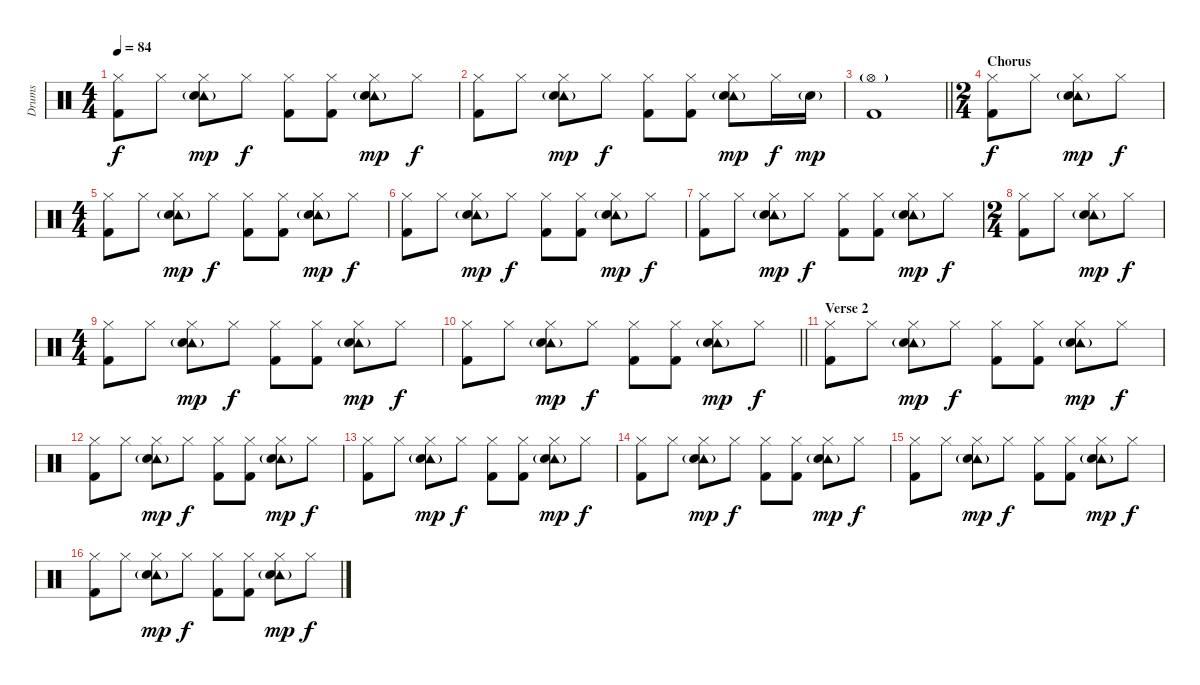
\track ("Drums" "Drums") {instrument percussion}
\staff {score}
\articulation defaults
\ts (4 4)
\tempo 84
\clef neutral
\ks c
("Hi-Hat (closed)" "Kick (hit) 2").8{dy f} "Hi-Hat (closed)".8 ("Hi-Hat (closed)" "Tambourine (hit)"{g} "Snare (hit) 2").8{dy mp} "Hi-Hat (closed)".8{dy f} ("Hi-Hat (closed)" "Kick (hit) 2").8 ("Hi-Hat (closed)" "Kick (hit) 2").8 ("Hi-Hat (closed)" "Tambourine (hit)"{g} "Snare (hit) 2").8{dy mp} "Hi-Hat (closed)".8{dy f} |
("Hi-Hat (closed)" "Kick (hit) 2").8 "Hi-Hat (closed)".8 ("Hi-Hat (closed)" "Tambourine (hit)"{g} "Snare (hit) 2").8{dy mp} "Hi-Hat (closed)".8{dy f} ("Hi-Hat (closed)" "Kick (hit) 2").8 ("Hi-Hat (closed)" "Kick (hit) 2").8 ("Hi-Hat (closed)" "Tambourine (hit)"{g} "Snare (hit) 2").8{dy mp} "Hi-Hat (closed)".16{dy f} "Snare (hit) 2"{g}.16{dy mp} |
\barLineRight lightlight
("Hi-Hat (open)"{g} "Kick (hit) 2").1 |
\ts (2 4)
\section ("" "Chorus")
("Hi-Hat (closed)" "Kick (hit) 2").8{dy f} "Hi-Hat (closed)".8 ("Hi-Hat (closed)" "Tambourine (hit)"{g} "Snare (hit) 2").8{dy mp} "Hi-Hat (closed)".8{dy f} |
\ts (4 4)
("Hi-Hat (closed)" "Kick (hit) 2").8 "Hi-Hat (closed)".8 ("Hi-Hat (closed)" "Tambourine (hit)"{g} "Snare (hit) 2").8{dy mp} "Hi-Hat (closed)".8{dy f} ("Hi-Hat (closed)" "Kick (hit) 2").8 ("Hi-Hat (closed)" "Kick (hit) 2").8 ("Hi-Hat (closed)" "Tambourine (hit)"{g} "Snare (hit) 2").8{dy mp} "Hi-Hat (closed)".8{dy f} |
("Hi-Hat (closed)" "Kick (hit) 2").8 "Hi-Hat (closed)".8 ("Hi-Hat (closed)" "Tambourine (hit)"{g} "Snare (hit) 2").8{dy mp} "Hi-Hat (closed)".8{dy f} ("Hi-Hat (closed)" "Kick (hit) 2").8 ("Hi-Hat (closed)" "Kick (hit) 2").8 ("Hi-Hat (closed)" "Tambourine (hit)"{g} "Snare (hit) 2").8{dy mp} "Hi-Hat (closed)".8{dy f} |
("Hi-Hat (closed)" "Kick (hit) 2").8 "Hi-Hat (closed)".8 ("Hi-Hat (closed)" "Tambourine (hit)"{g} "Snare (hit) 2").8{dy mp} "Hi-Hat (closed)".8{dy f} ("Hi-Hat (closed)" "Kick (hit) 2").8 ("Hi-Hat (closed)" "Kick (hit) 2").8 ("Hi-Hat (closed)" "Tambourine (hit)"{g} "Snare (hit) 2").8{dy mp} "Hi-Hat (closed)".8{dy f} |
\ts (2 4)
("Hi-Hat (closed)" "Kick (hit) 2").8 "Hi-Hat (closed)".8 ("Hi-Hat (closed)" "Tambourine (hit)"{g} "Snare (hit) 2").8{dy mp} "Hi-Hat (closed)".8{dy f} |
\ts (4 4)
("Hi-Hat (closed)" "Kick (hit) 2").8 "Hi-Hat (closed)".8 ("Hi-Hat (closed)" "Tambourine (hit)"{g} "Snare (hit) 2").8{dy mp} "Hi-Hat (closed)".8{dy f} ("Hi-Hat (closed)" "Kick (hit) 2").8 ("Hi-Hat (closed)" "Kick (hit) 2").8 ("Hi-Hat (closed)" "Tambourine (hit)"{g} "Snare (hit) 2").8{dy mp} "Hi-Hat (closed)".8{dy f} |
\barLineRight lightlight
("Hi-Hat (closed)" "Kick (hit) 2").8 "Hi-Hat (closed)".8 ("Hi-Hat (closed)" "Tambourine (hit)"{g} "Snare (hit) 2").8{dy mp} "Hi-Hat (closed)".8{dy f} ("Hi-Hat (closed)" "Kick (hit) 2").8 ("Hi-Hat (closed)" "Kick (hit) 2").8 ("Hi-Hat (closed)" "Tambourine (hit)"{g} "Snare (hit) 2").8{dy mp} "Hi-Hat (closed)".8{dy f} |
\section ("" "Verse 2")
("Hi-Hat (closed)" "Kick (hit) 2").8 "Hi-Hat (closed)".8 ("Hi-Hat (closed)" "Tambourine (hit)"{g} "Snare (hit) 2").8{dy mp} "Hi-Hat (closed)".8{dy f} ("Hi-Hat (closed)" "Kick (hit) 2").8 ("Hi-Hat (closed)" "Kick (hit) 2").8 ("Hi-Hat (closed)" "Tambourine (hit)"{g} "Snare (hit) 2").8{dy mp} "Hi-Hat (closed)".8{dy f} |
("Hi-Hat (closed)" "Kick (hit) 2").8 "Hi-Hat (closed)".8 ("Hi-Hat (closed)" "Tambourine (hit)"{g} "Snare (hit) 2").8{dy mp} "Hi-Hat (closed)".8{dy f} ("Hi-Hat (closed)" "Kick (hit) 2").8 ("Hi-Hat (closed)" "Kick (hit) 2").8 ("Hi-Hat (closed)" "Tambourine (hit)"{g} "Snare (hit) 2").8{dy mp} "Hi-Hat (closed)".8{dy f} |
("Hi-Hat (closed)" "Kick (hit) 2").8 "Hi-Hat (closed)".8 ("Hi-Hat (closed)" "Tambourine (hit)"{g} "Snare (hit) 2").8{dy mp} "Hi-Hat (closed)".8{dy f} ("Hi-Hat (closed)" "Kick (hit) 2").8 ("Hi-Hat (closed)" "Kick (hit) 2").8 ("Hi-Hat (closed)" "Tambourine (hit)"{g} "Snare (hit) 2").8{dy mp} "Hi-Hat (closed)".8{dy f} |
("Hi-Hat (closed)" "Kick (hit) 2").8 "Hi-Hat (closed)".8 ("Hi-Hat (closed)" "Tambourine (hit)"{g} "Snare (hit) 2").8{dy mp} "Hi-Hat (closed)".8{dy f} ("Hi-Hat (closed)" "Kick (hit) 2").8 ("Hi-Hat (closed)" "Kick (hit) 2").8 ("Hi-Hat (closed)" "Tambourine (hit)"{g} "Snare (hit) 2").8{dy mp} "Hi-Hat (closed)".8{dy f} |
("Hi-Hat (closed)" "Kick (hit) 2").8 "Hi-Hat (closed)".8 ("Hi-Hat (closed)" "Tambourine (hit)"{g} "Snare (hit) 2").8{dy mp} "Hi-Hat (closed)".8{dy f} ("Hi-Hat (closed)" "Kick (hit) 2").8 ("Hi-Hat (closed)" "Kick (hit) 2").8 ("Hi-Hat (closed)" "Tambourine (hit)"{g} "Snare (hit) 2").8{dy mp} "Hi-Hat (closed)".8{dy f} |
("Hi-Hat (closed)" "Kick (hit) 2").8 "Hi-Hat (closed)".8 ("Hi-Hat (closed)" "Tambourine (hit)"{g} "Snare (hit) 2").8{dy mp} "Hi-Hat (closed)".8{dy f} ("Hi-Hat (closed)" "Kick (hit) 2").8 ("Hi-Hat (closed)" "Kick (hit) 2").8 ("Hi-Hat (closed)" "Tambourine (hit)"{g} "Snare (hit) 2").8{dy mp} "Hi-Hat (closed)".8{dy f}
